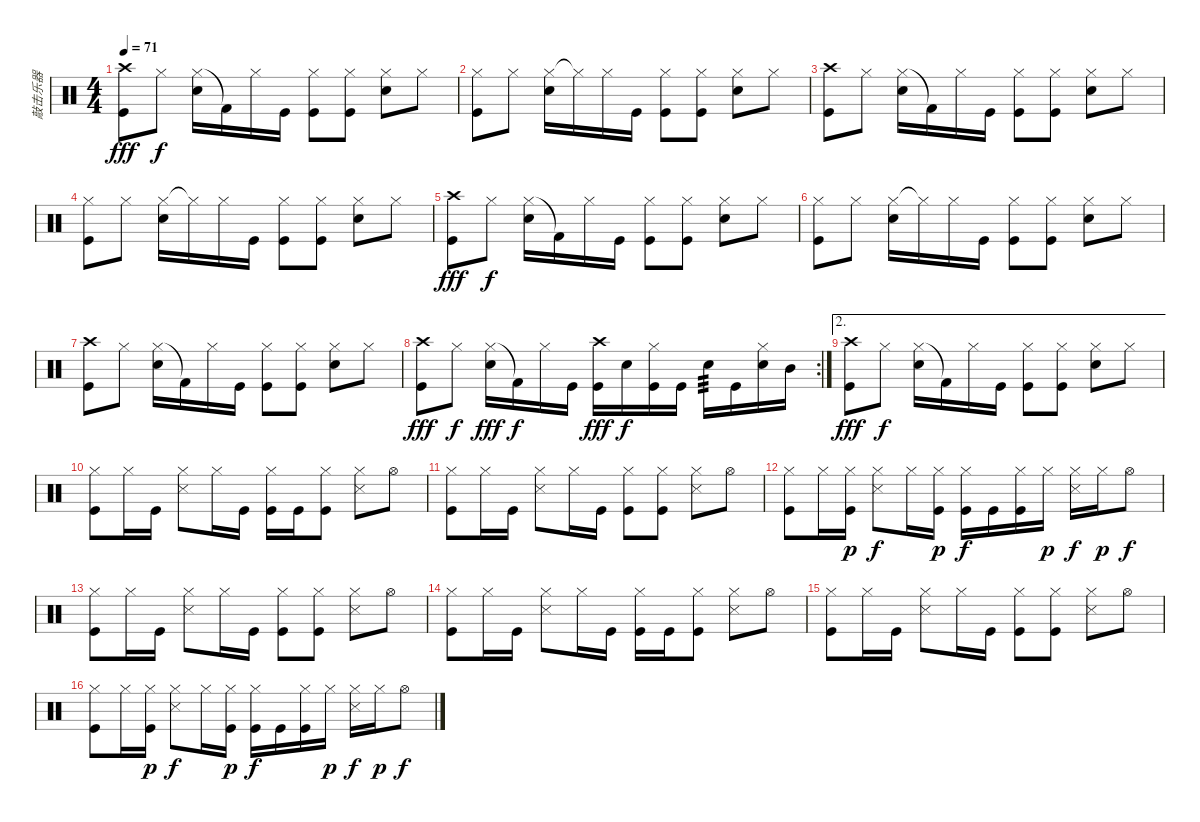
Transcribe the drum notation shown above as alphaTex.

\track ("敲击乐器" "敲击乐器") {instrument percussion}
\staff {score}
\articulation defaults
\ts (4 4)
\tempo 71
\clef neutral
\ks c
("Crash high (hit)" "Kick (hit)").8{dy fff} "Hi-Hat (closed)".8{dy f} ("Hi-Hat (closed)" "Electric Snare (hit)").16 "Kick (hit) 2"{t}.16 "Hi-Hat (closed)".16 "Kick (hit)".16 ("Hi-Hat (closed)" "Kick (hit)").8 ("Hi-Hat (closed)" "Kick (hit)").8 ("Hi-Hat (closed)" "Electric Snare (hit)").8 "Hi-Hat (closed)".8 |
("Hi-Hat (closed)" "Kick (hit)").8 "Hi-Hat (closed)".8 ("Hi-Hat (closed)" "Electric Snare (hit)").16 "Hi-Hat (closed)"{t}.16 "Hi-Hat (closed)".16 "Kick (hit)".16 ("Hi-Hat (closed)" "Kick (hit)").8 ("Hi-Hat (closed)" "Kick (hit)").8 ("Hi-Hat (closed)" "Electric Snare (hit)").8 "Hi-Hat (closed)".8 |
("Crash high (hit)" "Kick (hit)").8 "Hi-Hat (closed)".8 ("Hi-Hat (closed)" "Electric Snare (hit)").16 "Kick (hit) 2"{t}.16 "Hi-Hat (closed)".16 "Kick (hit)".16 ("Hi-Hat (closed)" "Kick (hit)").8 ("Hi-Hat (closed)" "Kick (hit)").8 ("Hi-Hat (closed)" "Electric Snare (hit)").8 "Hi-Hat (closed)".8 |
("Hi-Hat (closed)" "Kick (hit)").8 "Hi-Hat (closed)".8 ("Hi-Hat (closed)" "Electric Snare (hit)").16 "Hi-Hat (closed)"{t}.16 "Hi-Hat (closed)".16 "Kick (hit)".16 ("Hi-Hat (closed)" "Kick (hit)").8 ("Hi-Hat (closed)" "Kick (hit)").8 ("Hi-Hat (closed)" "Electric Snare (hit)").8 "Hi-Hat (closed)".8 |
("Crash high (hit)" "Kick (hit)").8{dy fff} "Hi-Hat (closed)".8{dy f} ("Hi-Hat (closed)" "Electric Snare (hit)").16 "Kick (hit) 2"{t}.16 "Hi-Hat (closed)".16 "Kick (hit)".16 ("Hi-Hat (closed)" "Kick (hit)").8 ("Hi-Hat (closed)" "Kick (hit)").8 ("Hi-Hat (closed)" "Electric Snare (hit)").8 "Hi-Hat (closed)".8 |
("Hi-Hat (closed)" "Kick (hit)").8 "Hi-Hat (closed)".8 ("Hi-Hat (closed)" "Electric Snare (hit)").16 "Hi-Hat (closed)"{t}.16 "Hi-Hat (closed)".16 "Kick (hit)".16 ("Hi-Hat (closed)" "Kick (hit)").8 ("Hi-Hat (closed)" "Kick (hit)").8 ("Hi-Hat (closed)" "Electric Snare (hit)").8 "Hi-Hat (closed)".8 |
("Crash high (hit)" "Kick (hit)").8 "Hi-Hat (closed)".8 ("Hi-Hat (closed)" "Electric Snare (hit)").16 "Kick (hit) 2"{t}.16 "Hi-Hat (closed)".16 "Kick (hit)".16 ("Hi-Hat (closed)" "Kick (hit)").8 ("Hi-Hat (closed)" "Kick (hit)").8 ("Hi-Hat (closed)" "Electric Snare (hit)").8 "Hi-Hat (closed)".8 |
\rc 2
("Crash high (hit)" "Kick (hit)").8{dy fff} "Hi-Hat (closed)".8{dy f} ("Hi-Hat (closed)" "Electric Snare (hit)").16{dy fff} "Kick (hit) 2"{t}.16{dy f} "Hi-Hat (closed)".16 "Kick (hit)".16 ("Crash high (hit)" "Kick (hit)").16{dy fff} "Electric Snare (hit)".16{dy f} ("Hi-Hat (closed)" "Kick (hit)").16 "Kick (hit)".16 "Electric Snare (hit)".16{tp 3} "Kick (hit)".16 ("Hi-Hat (closed)" "Electric Snare (hit)").16 "Mid Tom (hit)".16 |
\ae 2
("Crash high (hit)" "Kick (hit)").8{dy fff} "Hi-Hat (closed)".8{dy f} ("Hi-Hat (closed)" "Electric Snare (hit)").16 "Kick (hit) 2"{t}.16 "Hi-Hat (closed)".16 "Kick (hit)".16 ("Hi-Hat (closed)" "Kick (hit)").8 ("Hi-Hat (closed)" "Kick (hit)").8 ("Hi-Hat (closed)" "Electric Snare (hit)").8 "Hi-Hat (closed)".8 |
("Hi-Hat (closed)" "Kick (hit)").8 "Hi-Hat (closed)".16 "Kick (hit)".16 ("Hi-Hat (closed)" "Snare (side stick) 3").8 "Hi-Hat (closed)".16 "Kick (hit)".16 ("Hi-Hat (closed)" "Kick (hit)").16 "Kick (hit)".16 ("Hi-Hat (closed)" "Kick (hit)").8 ("Hi-Hat (closed)" "Snare (side stick) 3").8 "Hi-Hat (open)".8 |
("Hi-Hat (closed)" "Kick (hit)").8 "Hi-Hat (closed)".16 "Kick (hit)".16 ("Hi-Hat (closed)" "Snare (side stick) 3").8 "Hi-Hat (closed)".16 "Kick (hit)".16 ("Hi-Hat (closed)" "Kick (hit)").8 ("Hi-Hat (closed)" "Kick (hit)").8 ("Hi-Hat (closed)" "Snare (side stick) 3").8 "Hi-Hat (open)".8 |
("Hi-Hat (closed)" "Kick (hit)").8 "Hi-Hat (closed)".16 ("Hi-Hat (closed)" "Kick (hit)").16{dy p} ("Hi-Hat (closed)" "Snare (side stick) 3").8{dy f} "Hi-Hat (closed)".16 ("Hi-Hat (closed)" "Kick (hit)").16{dy p} ("Hi-Hat (closed)" "Kick (hit)").16{dy f} "Kick (hit)".16 ("Hi-Hat (closed)" "Kick (hit)").16 "Hi-Hat (closed)".16{dy p} ("Hi-Hat (closed)" "Snare (side stick) 3").16{dy f} "Hi-Hat (closed)".16{dy p} "Hi-Hat (open)".8{dy f} |
("Hi-Hat (closed)" "Kick (hit)").8 "Hi-Hat (closed)".16 "Kick (hit)".16 ("Hi-Hat (closed)" "Snare (side stick) 3").8 "Hi-Hat (closed)".16 "Kick (hit)".16 ("Hi-Hat (closed)" "Kick (hit)").8 ("Hi-Hat (closed)" "Kick (hit)").8 ("Hi-Hat (closed)" "Snare (side stick) 3").8 "Hi-Hat (open)".8 |
("Hi-Hat (closed)" "Kick (hit)").8 "Hi-Hat (closed)".16 "Kick (hit)".16 ("Hi-Hat (closed)" "Snare (side stick) 3").8 "Hi-Hat (closed)".16 "Kick (hit)".16 ("Hi-Hat (closed)" "Kick (hit)").16 "Kick (hit)".16 ("Hi-Hat (closed)" "Kick (hit)").8 ("Hi-Hat (closed)" "Snare (side stick) 3").8 "Hi-Hat (open)".8 |
("Hi-Hat (closed)" "Kick (hit)").8 "Hi-Hat (closed)".16 "Kick (hit)".16 ("Hi-Hat (closed)" "Snare (side stick) 3").8 "Hi-Hat (closed)".16 "Kick (hit)".16 ("Hi-Hat (closed)" "Kick (hit)").8 ("Hi-Hat (closed)" "Kick (hit)").8 ("Hi-Hat (closed)" "Snare (side stick) 3").8 "Hi-Hat (open)".8 |
("Hi-Hat (closed)" "Kick (hit)").8 "Hi-Hat (closed)".16 ("Hi-Hat (closed)" "Kick (hit)").16{dy p} ("Hi-Hat (closed)" "Snare (side stick) 3").8{dy f} "Hi-Hat (closed)".16 ("Hi-Hat (closed)" "Kick (hit)").16{dy p} ("Hi-Hat (closed)" "Kick (hit)").16{dy f} "Kick (hit)".16 ("Hi-Hat (closed)" "Kick (hit)").16 "Hi-Hat (closed)".16{dy p} ("Hi-Hat (closed)" "Snare (side stick) 3").16{dy f} "Hi-Hat (closed)".16{dy p} "Hi-Hat (open)".8{dy f}
